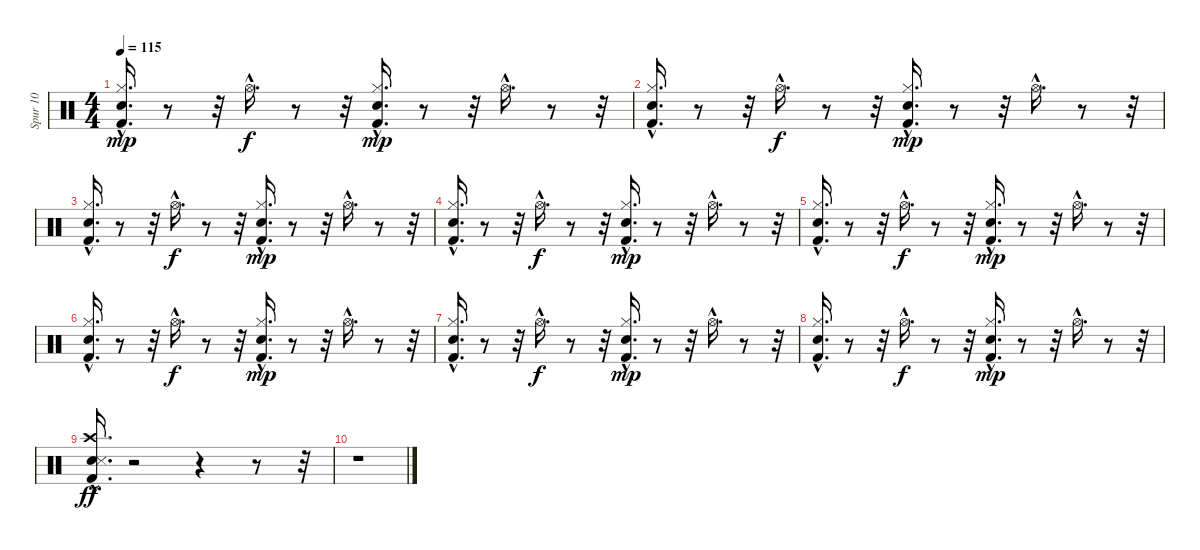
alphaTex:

\track ("Spur 10" "Spur 10") {instrument percussion}
\staff {score}
\articulation defaults
\ts (4 4)
\tempo 115
\clef neutral
\ks c
("Kick (hit) 2"{hac} "Hi-Hat (closed)"{hac} "Snare (hit) 2"{hac}).16{d dy mp} r.8 r.32 "Hi-Hat (open)"{hac}.16{d dy f} r.8 r.32 ("Kick (hit) 2"{hac} "Hi-Hat (closed)"{hac} "Snare (hit) 2"{hac}).16{d dy mp} r.8 r.32 "Hi-Hat (open)"{hac}.16{d} r.8 r.32 |
("Kick (hit) 2"{hac} "Hi-Hat (closed)"{hac} "Snare (hit) 2"{hac}).16{d} r.8 r.32 "Hi-Hat (open)"{hac}.16{d dy f} r.8 r.32 ("Kick (hit) 2"{hac} "Hi-Hat (closed)"{hac} "Snare (hit) 2"{hac}).16{d dy mp} r.8 r.32 "Hi-Hat (open)"{hac}.16{d} r.8 r.32 |
("Kick (hit) 2"{hac} "Hi-Hat (closed)"{hac} "Snare (hit) 2"{hac}).16{d} r.8 r.32 "Hi-Hat (open)"{hac}.16{d dy f} r.8 r.32 ("Kick (hit) 2"{hac} "Hi-Hat (closed)"{hac} "Snare (hit) 2"{hac}).16{d dy mp} r.8 r.32 "Hi-Hat (open)"{hac}.16{d} r.8 r.32 |
("Kick (hit) 2"{hac} "Hi-Hat (closed)"{hac} "Snare (hit) 2"{hac}).16{d} r.8 r.32 "Hi-Hat (open)"{hac}.16{d dy f} r.8 r.32 ("Kick (hit) 2"{hac} "Hi-Hat (closed)"{hac} "Snare (hit) 2"{hac}).16{d dy mp} r.8 r.32 "Hi-Hat (open)"{hac}.16{d} r.8 r.32 |
("Kick (hit) 2"{hac} "Hi-Hat (closed)"{hac} "Snare (hit) 2"{hac}).16{d} r.8 r.32 "Hi-Hat (open)"{hac}.16{d dy f} r.8 r.32 ("Kick (hit) 2"{hac} "Hi-Hat (closed)"{hac} "Snare (hit) 2"{hac}).16{d dy mp} r.8 r.32 "Hi-Hat (open)"{hac}.16{d} r.8 r.32 |
("Kick (hit) 2"{hac} "Hi-Hat (closed)"{hac} "Snare (hit) 2"{hac}).16{d} r.8 r.32 "Hi-Hat (open)"{hac}.16{d dy f} r.8 r.32 ("Kick (hit) 2"{hac} "Hi-Hat (closed)"{hac} "Snare (hit) 2"{hac}).16{d dy mp} r.8 r.32 "Hi-Hat (open)"{hac}.16{d} r.8 r.32 |
("Kick (hit) 2"{hac} "Hi-Hat (closed)"{hac} "Snare (hit) 2"{hac}).16{d} r.8 r.32 "Hi-Hat (open)"{hac}.16{d dy f} r.8 r.32 ("Kick (hit) 2"{hac} "Hi-Hat (closed)"{hac} "Snare (hit) 2"{hac}).16{d dy mp} r.8 r.32 "Hi-Hat (open)"{hac}.16{d} r.8 r.32 |
("Kick (hit) 2"{hac} "Hi-Hat (closed)"{hac} "Snare (hit) 2"{hac}).16{d} r.8 r.32 "Hi-Hat (open)"{hac}.16{d dy f} r.8 r.32 ("Kick (hit) 2"{hac} "Hi-Hat (closed)"{hac} "Snare (hit) 2"{hac}).16{d dy mp} r.8 r.32 "Hi-Hat (open)"{hac}.16{d} r.8 r.32 |
("Kick (hit) 2"{hac} "Crash high (hit)"{hac} "Snare (hit) 2"{hac} "Snare (side stick) 3"{hac}).16{d dy ff} r.2 r.4 r.8 r.32 |
r.1
